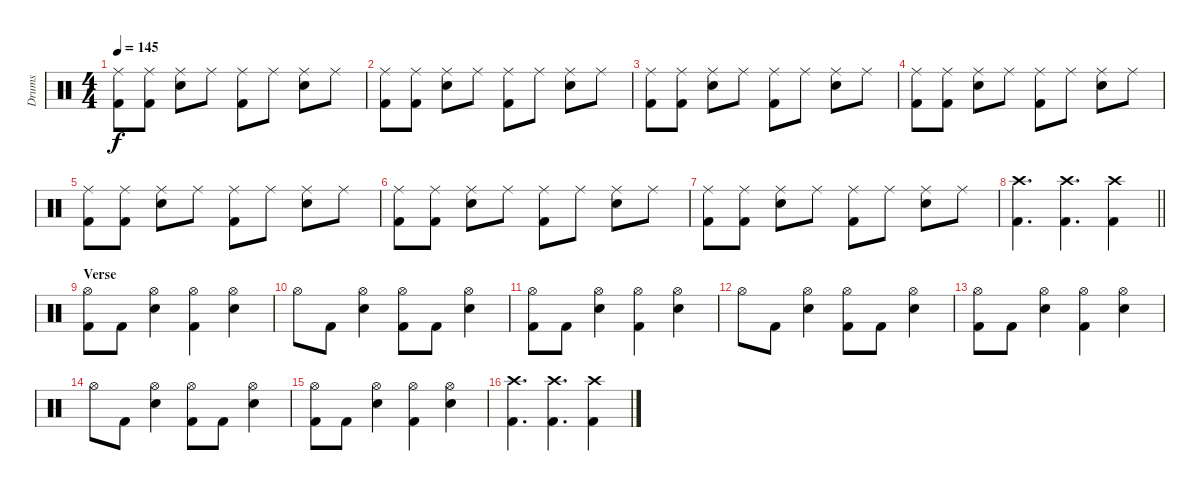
\track ("Drums" "Drums") {instrument percussion}
\staff {score}
\articulation defaults
\ts (4 4)
\section ("" "")
\tempo 145
\clef neutral
\ks c
("Ride (middle)" "Kick (hit) 2").8{dy f} ("Ride (middle)" "Kick (hit) 2").8 ("Ride (middle)" "Electric Snare (hit)").8 "Ride (middle)".8 ("Ride (middle)" "Kick (hit) 2").8 "Ride (middle)".8 ("Ride (middle)" "Electric Snare (hit)").8 "Ride (middle)".8 |
("Ride (middle)" "Kick (hit) 2").8 ("Ride (middle)" "Kick (hit) 2").8 ("Ride (middle)" "Electric Snare (hit)").8 "Ride (middle)".8 ("Ride (middle)" "Kick (hit) 2").8 "Ride (middle)".8 ("Ride (middle)" "Electric Snare (hit)").8 "Ride (middle)".8 |
("Ride (middle)" "Kick (hit) 2").8 ("Ride (middle)" "Kick (hit) 2").8 ("Ride (middle)" "Electric Snare (hit)").8 "Ride (middle)".8 ("Ride (middle)" "Kick (hit) 2").8 "Ride (middle)".8 ("Ride (middle)" "Electric Snare (hit)").8 "Ride (middle)".8 |
("Ride (middle)" "Kick (hit) 2").8 ("Ride (middle)" "Kick (hit) 2").8 ("Ride (middle)" "Electric Snare (hit)").8 "Ride (middle)".8 ("Ride (middle)" "Kick (hit) 2").8 "Ride (middle)".8 ("Ride (middle)" "Electric Snare (hit)").8 "Ride (middle)".8 |
("Ride (middle)" "Kick (hit) 2").8 ("Ride (middle)" "Kick (hit) 2").8 ("Ride (middle)" "Electric Snare (hit)").8 "Ride (middle)".8 ("Ride (middle)" "Kick (hit) 2").8 "Ride (middle)".8 ("Ride (middle)" "Electric Snare (hit)").8 "Ride (middle)".8 |
("Ride (middle)" "Kick (hit) 2").8 ("Ride (middle)" "Kick (hit) 2").8 ("Ride (middle)" "Electric Snare (hit)").8 "Ride (middle)".8 ("Ride (middle)" "Kick (hit) 2").8 "Ride (middle)".8 ("Ride (middle)" "Electric Snare (hit)").8 "Ride (middle)".8 |
("Ride (middle)" "Kick (hit) 2").8 ("Ride (middle)" "Kick (hit) 2").8 ("Ride (middle)" "Electric Snare (hit)").8 "Ride (middle)".8 ("Ride (middle)" "Kick (hit) 2").8 "Ride (middle)".8 ("Ride (middle)" "Electric Snare (hit)").8 "Ride (middle)".8 |
\barLineRight lightlight
("Crash high (hit)" "Kick (hit) 2").4{d} ("Crash high (hit)" "Kick (hit) 2").4{d} ("Crash high (hit)" "Kick (hit) 2").4 |
\section ("" "Verse")
("Hi-Hat (open)" "Kick (hit) 2").8 "Kick (hit) 2".8 ("Hi-Hat (open)" "Electric Snare (hit)").4 ("Hi-Hat (open)" "Kick (hit) 2").4 ("Hi-Hat (open)" "Electric Snare (hit)").4 |
"Hi-Hat (open)".8 "Kick (hit) 2".8 ("Hi-Hat (open)" "Electric Snare (hit)").4 ("Hi-Hat (open)" "Kick (hit) 2").8 "Kick (hit) 2".8 ("Hi-Hat (open)" "Electric Snare (hit)").4 |
("Hi-Hat (open)" "Kick (hit) 2").8 "Kick (hit) 2".8 ("Hi-Hat (open)" "Electric Snare (hit)").4 ("Hi-Hat (open)" "Kick (hit) 2").4 ("Hi-Hat (open)" "Electric Snare (hit)").4 |
"Hi-Hat (open)".8 "Kick (hit) 2".8 ("Hi-Hat (open)" "Electric Snare (hit)").4 ("Hi-Hat (open)" "Kick (hit) 2").8 "Kick (hit) 2".8 ("Hi-Hat (open)" "Electric Snare (hit)").4 |
("Hi-Hat (open)" "Kick (hit) 2").8 "Kick (hit) 2".8 ("Hi-Hat (open)" "Electric Snare (hit)").4 ("Hi-Hat (open)" "Kick (hit) 2").4 ("Hi-Hat (open)" "Electric Snare (hit)").4 |
"Hi-Hat (open)".8 "Kick (hit) 2".8 ("Hi-Hat (open)" "Electric Snare (hit)").4 ("Hi-Hat (open)" "Kick (hit) 2").8 "Kick (hit) 2".8 ("Hi-Hat (open)" "Electric Snare (hit)").4 |
("Hi-Hat (open)" "Kick (hit) 2").8 "Kick (hit) 2".8 ("Hi-Hat (open)" "Electric Snare (hit)").4 ("Hi-Hat (open)" "Kick (hit) 2").4 ("Hi-Hat (open)" "Electric Snare (hit)").4 |
("Crash high (hit)" "Kick (hit) 2").4{d} ("Crash high (hit)" "Kick (hit) 2").4{d} ("Crash high (hit)" "Kick (hit) 2").4
